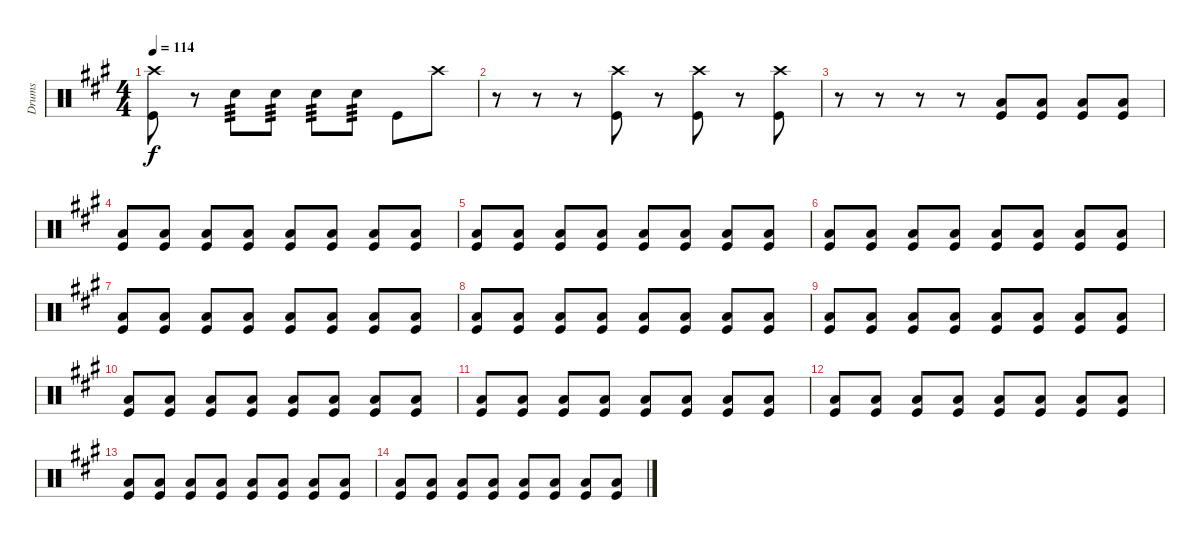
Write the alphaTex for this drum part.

\track ("Drums" "Drums") {instrument percussion}
\staff {score}
\articulation defaults
\ts (4 4)
\tempo 114
\clef neutral
\ks f#minor
("Crash high (hit)" "Kick (hit)").8{dy f} r.8 "Snare (hit) 2".8{tp 3} "Snare (hit) 2".8{tp 3} "Snare (hit) 2".8{tp 3} "Snare (hit) 2".8{tp 3} "Kick (hit)".8 "Crash high (hit)".8 |
r.8 r.8 r.8 ("Crash high (hit)" "Kick (hit)").8 r.8 ("Crash high (hit)" "Kick (hit)").8 r.8 ("Crash high (hit)" "Kick (hit)").8 |
r.8 r.8 r.8 r.8 ("Low Floor Tom (hit)" "Kick (hit)").8 ("Low Floor Tom (hit)" "Kick (hit)").8 ("Low Floor Tom (hit)" "Kick (hit)").8 ("Low Floor Tom (hit)" "Kick (hit)").8 |
("Low Floor Tom (hit)" "Kick (hit)").8 ("Low Floor Tom (hit)" "Kick (hit)").8 ("Low Floor Tom (hit)" "Kick (hit)").8 ("Low Floor Tom (hit)" "Kick (hit)").8 ("Low Floor Tom (hit)" "Kick (hit)").8 ("Low Floor Tom (hit)" "Kick (hit)").8 ("Low Floor Tom (hit)" "Kick (hit)").8 ("Low Floor Tom (hit)" "Kick (hit)").8 |
("Low Floor Tom (hit)" "Kick (hit)").8 ("Low Floor Tom (hit)" "Kick (hit)").8 ("Low Floor Tom (hit)" "Kick (hit)").8 ("Low Floor Tom (hit)" "Kick (hit)").8 ("Low Floor Tom (hit)" "Kick (hit)").8 ("Low Floor Tom (hit)" "Kick (hit)").8 ("Low Floor Tom (hit)" "Kick (hit)").8 ("Low Floor Tom (hit)" "Kick (hit)").8 |
("Low Floor Tom (hit)" "Kick (hit)").8 ("Low Floor Tom (hit)" "Kick (hit)").8 ("Low Floor Tom (hit)" "Kick (hit)").8 ("Low Floor Tom (hit)" "Kick (hit)").8 ("Low Floor Tom (hit)" "Kick (hit)").8 ("Low Floor Tom (hit)" "Kick (hit)").8 ("Low Floor Tom (hit)" "Kick (hit)").8 ("Low Floor Tom (hit)" "Kick (hit)").8 |
("Low Floor Tom (hit)" "Kick (hit)").8 ("Low Floor Tom (hit)" "Kick (hit)").8 ("Low Floor Tom (hit)" "Kick (hit)").8 ("Low Floor Tom (hit)" "Kick (hit)").8 ("Low Floor Tom (hit)" "Kick (hit)").8 ("Low Floor Tom (hit)" "Kick (hit)").8 ("Low Floor Tom (hit)" "Kick (hit)").8 ("Low Floor Tom (hit)" "Kick (hit)").8 |
("Low Floor Tom (hit)" "Kick (hit)").8{volume 5} ("Low Floor Tom (hit)" "Kick (hit)").8 ("Low Floor Tom (hit)" "Kick (hit)").8 ("Low Floor Tom (hit)" "Kick (hit)").8 ("Low Floor Tom (hit)" "Kick (hit)").8 ("Low Floor Tom (hit)" "Kick (hit)").8 ("Low Floor Tom (hit)" "Kick (hit)").8 ("Low Floor Tom (hit)" "Kick (hit)").8 |
("Low Floor Tom (hit)" "Kick (hit)").8 ("Low Floor Tom (hit)" "Kick (hit)").8 ("Low Floor Tom (hit)" "Kick (hit)").8 ("Low Floor Tom (hit)" "Kick (hit)").8 ("Low Floor Tom (hit)" "Kick (hit)").8 ("Low Floor Tom (hit)" "Kick (hit)").8 ("Low Floor Tom (hit)" "Kick (hit)").8 ("Low Floor Tom (hit)" "Kick (hit)").8 |
("Low Floor Tom (hit)" "Kick (hit)").8 ("Low Floor Tom (hit)" "Kick (hit)").8 ("Low Floor Tom (hit)" "Kick (hit)").8 ("Low Floor Tom (hit)" "Kick (hit)").8 ("Low Floor Tom (hit)" "Kick (hit)").8 ("Low Floor Tom (hit)" "Kick (hit)").8 ("Low Floor Tom (hit)" "Kick (hit)").8 ("Low Floor Tom (hit)" "Kick (hit)").8 |
("Low Floor Tom (hit)" "Kick (hit)").8 ("Low Floor Tom (hit)" "Kick (hit)").8 ("Low Floor Tom (hit)" "Kick (hit)").8 ("Low Floor Tom (hit)" "Kick (hit)").8 ("Low Floor Tom (hit)" "Kick (hit)").8 ("Low Floor Tom (hit)" "Kick (hit)").8 ("Low Floor Tom (hit)" "Kick (hit)").8 ("Low Floor Tom (hit)" "Kick (hit)").8 |
("Low Floor Tom (hit)" "Kick (hit)").8{volume 0} ("Low Floor Tom (hit)" "Kick (hit)").8 ("Low Floor Tom (hit)" "Kick (hit)").8 ("Low Floor Tom (hit)" "Kick (hit)").8 ("Low Floor Tom (hit)" "Kick (hit)").8 ("Low Floor Tom (hit)" "Kick (hit)").8 ("Low Floor Tom (hit)" "Kick (hit)").8 ("Low Floor Tom (hit)" "Kick (hit)").8 |
("Low Floor Tom (hit)" "Kick (hit)").8 ("Low Floor Tom (hit)" "Kick (hit)").8 ("Low Floor Tom (hit)" "Kick (hit)").8 ("Low Floor Tom (hit)" "Kick (hit)").8 ("Low Floor Tom (hit)" "Kick (hit)").8 ("Low Floor Tom (hit)" "Kick (hit)").8 ("Low Floor Tom (hit)" "Kick (hit)").8 ("Low Floor Tom (hit)" "Kick (hit)").8 |
("Low Floor Tom (hit)" "Kick (hit)").8 ("Low Floor Tom (hit)" "Kick (hit)").8 ("Low Floor Tom (hit)" "Kick (hit)").8 ("Low Floor Tom (hit)" "Kick (hit)").8 ("Low Floor Tom (hit)" "Kick (hit)").8 ("Low Floor Tom (hit)" "Kick (hit)").8 ("Low Floor Tom (hit)" "Kick (hit)").8 ("Low Floor Tom (hit)" "Kick (hit)").8
